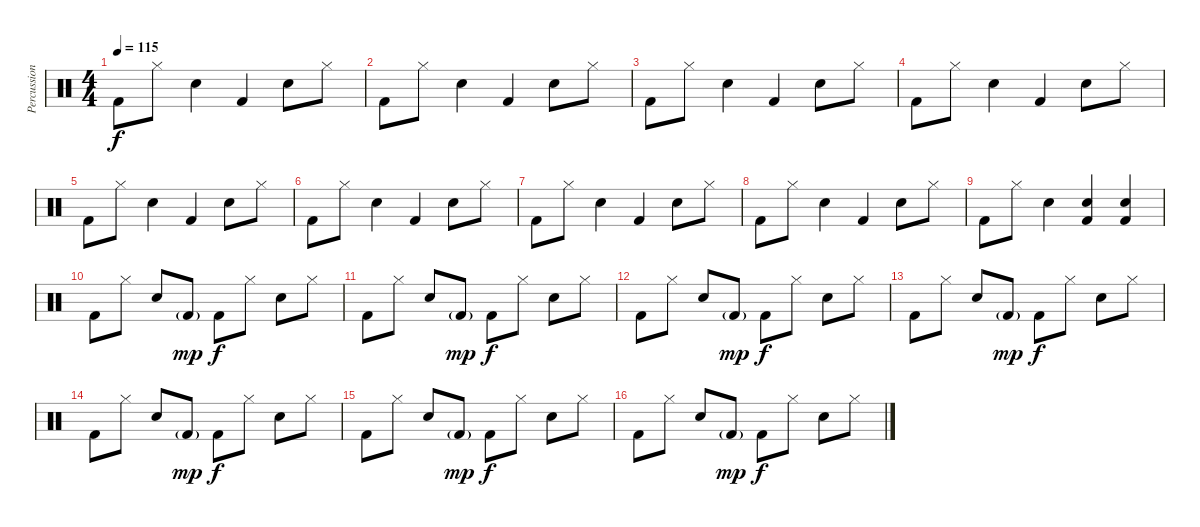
\track ("Percussion" "Percussion") {instrument percussion}
\staff {score}
\articulation defaults
\ts (4 4)
\tempo 115
\clef neutral
\ks c "Kick (hit) 2".8{dy f} "Hi-Hat (closed)".8 "Snare (hit) 2".4 "Kick (hit) 2".4 "Snare (hit) 2".8 "Hi-Hat (closed)".8
|
"Kick (hit) 2".8 "Hi-Hat (closed)".8 "Snare (hit) 2".4 "Kick (hit) 2".4 "Snare (hit) 2".8 "Hi-Hat (closed)".8 |
"Kick (hit) 2".8 "Hi-Hat (closed)".8 "Snare (hit) 2".4 "Kick (hit) 2".4 "Snare (hit) 2".8 "Hi-Hat (closed)".8 |
"Kick (hit) 2".8 "Hi-Hat (closed)".8 "Snare (hit) 2".4 "Kick (hit) 2".4 "Snare (hit) 2".8 "Hi-Hat (closed)".8 |
"Kick (hit) 2".8 "Hi-Hat (closed)".8 "Snare (hit) 2".4 "Kick (hit) 2".4 "Snare (hit) 2".8 "Hi-Hat (closed)".8 |
"Kick (hit) 2".8 "Hi-Hat (closed)".8 "Snare (hit) 2".4 "Kick (hit) 2".4 "Snare (hit) 2".8 "Hi-Hat (closed)".8 |
"Kick (hit) 2".8 "Hi-Hat (closed)".8 "Snare (hit) 2".4 "Kick (hit) 2".4 "Snare (hit) 2".8 "Hi-Hat (closed)".8 |
"Kick (hit) 2".8 "Hi-Hat (closed)".8 "Snare (hit) 2".4 "Kick (hit) 2".4 "Snare (hit) 2".8 "Hi-Hat (closed)".8 |
"Kick (hit) 2".8 "Hi-Hat (closed)".8 "Snare (hit) 2".4 ("Snare (hit) 2" "Kick (hit) 2").4 ("Snare (hit) 2" "Kick (hit) 2").4 |
"Kick (hit) 2".8 "Hi-Hat (closed)".8 "Snare (hit) 2".8 "Kick (hit) 2"{g}.8{dy mp} "Kick (hit) 2".8{dy f} "Hi-Hat (closed)".8 "Snare (hit) 2".8 "Hi-Hat (closed)".8 |
"Kick (hit) 2".8 "Hi-Hat (closed)".8 "Snare (hit) 2".8 "Kick (hit) 2"{g}.8{dy mp} "Kick (hit) 2".8{dy f} "Hi-Hat (closed)".8 "Snare (hit) 2".8 "Hi-Hat (closed)".8 |
"Kick (hit) 2".8 "Hi-Hat (closed)".8 "Snare (hit) 2".8 "Kick (hit) 2"{g}.8{dy mp} "Kick (hit) 2".8{dy f} "Hi-Hat (closed)".8 "Snare (hit) 2".8 "Hi-Hat (closed)".8 |
"Kick (hit) 2".8 "Hi-Hat (closed)".8 "Snare (hit) 2".8 "Kick (hit) 2"{g}.8{dy mp} "Kick (hit) 2".8{dy f} "Hi-Hat (closed)".8 "Snare (hit) 2".8 "Hi-Hat (closed)".8 |
"Kick (hit) 2".8 "Hi-Hat (closed)".8 "Snare (hit) 2".8 "Kick (hit) 2"{g}.8{dy mp} "Kick (hit) 2".8{dy f} "Hi-Hat (closed)".8 "Snare (hit) 2".8 "Hi-Hat (closed)".8 |
"Kick (hit) 2".8 "Hi-Hat (closed)".8 "Snare (hit) 2".8 "Kick (hit) 2"{g}.8{dy mp} "Kick (hit) 2".8{dy f} "Hi-Hat (closed)".8 "Snare (hit) 2".8 "Hi-Hat (closed)".8 |
"Kick (hit) 2".8 "Hi-Hat (closed)".8 "Snare (hit) 2".8 "Kick (hit) 2"{g}.8{dy mp} "Kick (hit) 2".8{dy f} "Hi-Hat (closed)".8 "Snare (hit) 2".8 "Hi-Hat (closed)".8
